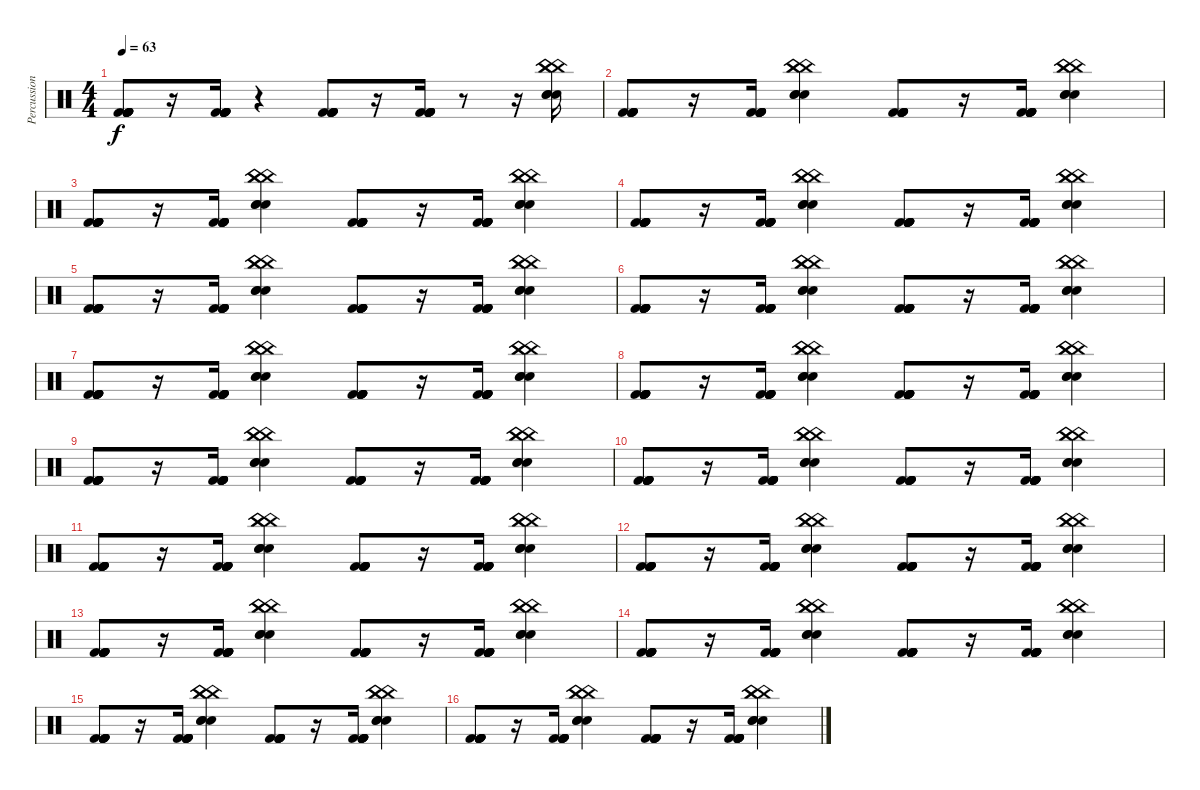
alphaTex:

\track ("Percussion" "Percussion") {instrument percussion}
\staff {score}
\articulation defaults
\ts (4 4)
\tempo 63
\clef neutral
\ks c
("Kick (hit) 2" "Kick (hit) 2" "Kick (hit) 2" "Kick (hit) 2" "Kick (hit) 2" "Kick (hit) 2").8{dy f} r.16 ("Kick (hit) 2" "Kick (hit) 2" "Kick (hit) 2" "Kick (hit) 2" "Kick (hit) 2" "Kick (hit) 2").16 r.4 ("Kick (hit) 2" "Kick (hit) 2" "Kick (hit) 2" "Kick (hit) 2" "Kick (hit) 2" "Kick (hit) 2").8 r.16 ("Kick (hit) 2" "Kick (hit) 2" "Kick (hit) 2" "Kick (hit) 2" "Kick (hit) 2" "Kick (hit) 2").16 r.8 r.16 ("China (hit)" "Snare (hit) 2" "China (hit)" "Snare (hit) 2" "China (hit)" "Snare (hit) 2").16 |
("Kick (hit) 2" "Kick (hit) 2" "Kick (hit) 2" "Kick (hit) 2" "Kick (hit) 2" "Kick (hit) 2").8 r.16 ("Kick (hit) 2" "Kick (hit) 2" "Kick (hit) 2" "Kick (hit) 2" "Kick (hit) 2" "Kick (hit) 2").16 ("China (hit)" "Snare (hit) 2" "China (hit)" "Snare (hit) 2" "China (hit)" "Snare (hit) 2").4 ("Kick (hit) 2" "Kick (hit) 2" "Kick (hit) 2" "Kick (hit) 2" "Kick (hit) 2" "Kick (hit) 2").8 r.16 ("Kick (hit) 2" "Kick (hit) 2" "Kick (hit) 2" "Kick (hit) 2" "Kick (hit) 2" "Kick (hit) 2").16 ("China (hit)" "Snare (hit) 2" "China (hit)" "Snare (hit) 2" "China (hit)" "Snare (hit) 2").4 |
("Kick (hit) 2" "Kick (hit) 2" "Kick (hit) 2" "Kick (hit) 2" "Kick (hit) 2" "Kick (hit) 2").8 r.16 ("Kick (hit) 2" "Kick (hit) 2" "Kick (hit) 2" "Kick (hit) 2" "Kick (hit) 2" "Kick (hit) 2").16 ("China (hit)" "Snare (hit) 2" "China (hit)" "Snare (hit) 2" "China (hit)" "Snare (hit) 2").4 ("Kick (hit) 2" "Kick (hit) 2" "Kick (hit) 2" "Kick (hit) 2" "Kick (hit) 2" "Kick (hit) 2").8 r.16 ("Kick (hit) 2" "Kick (hit) 2" "Kick (hit) 2" "Kick (hit) 2" "Kick (hit) 2" "Kick (hit) 2").16 ("China (hit)" "Snare (hit) 2" "China (hit)" "Snare (hit) 2" "China (hit)" "Snare (hit) 2").4 |
("Kick (hit) 2" "Kick (hit) 2" "Kick (hit) 2" "Kick (hit) 2" "Kick (hit) 2" "Kick (hit) 2").8 r.16 ("Kick (hit) 2" "Kick (hit) 2" "Kick (hit) 2" "Kick (hit) 2" "Kick (hit) 2" "Kick (hit) 2").16 ("China (hit)" "Snare (hit) 2" "China (hit)" "Snare (hit) 2" "China (hit)" "Snare (hit) 2").4 ("Kick (hit) 2" "Kick (hit) 2" "Kick (hit) 2" "Kick (hit) 2" "Kick (hit) 2" "Kick (hit) 2").8 r.16 ("Kick (hit) 2" "Kick (hit) 2" "Kick (hit) 2" "Kick (hit) 2" "Kick (hit) 2" "Kick (hit) 2").16 ("China (hit)" "Snare (hit) 2" "China (hit)" "Snare (hit) 2" "China (hit)" "Snare (hit) 2").4 |
("Kick (hit) 2" "Kick (hit) 2" "Kick (hit) 2" "Kick (hit) 2" "Kick (hit) 2" "Kick (hit) 2").8 r.16 ("Kick (hit) 2" "Kick (hit) 2" "Kick (hit) 2" "Kick (hit) 2" "Kick (hit) 2" "Kick (hit) 2").16 ("China (hit)" "Snare (hit) 2" "China (hit)" "Snare (hit) 2" "China (hit)" "Snare (hit) 2").4 ("Kick (hit) 2" "Kick (hit) 2" "Kick (hit) 2" "Kick (hit) 2" "Kick (hit) 2" "Kick (hit) 2").8 r.16 ("Kick (hit) 2" "Kick (hit) 2" "Kick (hit) 2" "Kick (hit) 2" "Kick (hit) 2" "Kick (hit) 2").16 ("China (hit)" "Snare (hit) 2" "China (hit)" "Snare (hit) 2" "China (hit)" "Snare (hit) 2").4 |
("Kick (hit) 2" "Kick (hit) 2" "Kick (hit) 2" "Kick (hit) 2" "Kick (hit) 2" "Kick (hit) 2").8 r.16 ("Kick (hit) 2" "Kick (hit) 2" "Kick (hit) 2" "Kick (hit) 2" "Kick (hit) 2" "Kick (hit) 2").16 ("China (hit)" "Snare (hit) 2" "China (hit)" "Snare (hit) 2" "China (hit)" "Snare (hit) 2").4 ("Kick (hit) 2" "Kick (hit) 2" "Kick (hit) 2" "Kick (hit) 2" "Kick (hit) 2" "Kick (hit) 2").8 r.16 ("Kick (hit) 2" "Kick (hit) 2" "Kick (hit) 2" "Kick (hit) 2" "Kick (hit) 2" "Kick (hit) 2").16 ("China (hit)" "Snare (hit) 2" "China (hit)" "Snare (hit) 2" "China (hit)" "Snare (hit) 2").4 |
("Kick (hit) 2" "Kick (hit) 2" "Kick (hit) 2" "Kick (hit) 2" "Kick (hit) 2" "Kick (hit) 2").8 r.16 ("Kick (hit) 2" "Kick (hit) 2" "Kick (hit) 2" "Kick (hit) 2" "Kick (hit) 2" "Kick (hit) 2").16 ("China (hit)" "Snare (hit) 2" "China (hit)" "Snare (hit) 2" "China (hit)" "Snare (hit) 2").4 ("Kick (hit) 2" "Kick (hit) 2" "Kick (hit) 2" "Kick (hit) 2" "Kick (hit) 2" "Kick (hit) 2").8 r.16 ("Kick (hit) 2" "Kick (hit) 2" "Kick (hit) 2" "Kick (hit) 2" "Kick (hit) 2" "Kick (hit) 2").16 ("China (hit)" "Snare (hit) 2" "China (hit)" "Snare (hit) 2" "China (hit)" "Snare (hit) 2").4 |
("Kick (hit) 2" "Kick (hit) 2" "Kick (hit) 2" "Kick (hit) 2" "Kick (hit) 2" "Kick (hit) 2").8 r.16 ("Kick (hit) 2" "Kick (hit) 2" "Kick (hit) 2" "Kick (hit) 2" "Kick (hit) 2" "Kick (hit) 2").16 ("China (hit)" "Snare (hit) 2" "China (hit)" "Snare (hit) 2" "China (hit)" "Snare (hit) 2").4 ("Kick (hit) 2" "Kick (hit) 2" "Kick (hit) 2" "Kick (hit) 2" "Kick (hit) 2" "Kick (hit) 2").8 r.16 ("Kick (hit) 2" "Kick (hit) 2" "Kick (hit) 2" "Kick (hit) 2" "Kick (hit) 2" "Kick (hit) 2").16 ("China (hit)" "Snare (hit) 2" "China (hit)" "Snare (hit) 2" "China (hit)" "Snare (hit) 2").4 |
("Kick (hit) 2" "Kick (hit) 2" "Kick (hit) 2" "Kick (hit) 2" "Kick (hit) 2" "Kick (hit) 2").8 r.16 ("Kick (hit) 2" "Kick (hit) 2" "Kick (hit) 2" "Kick (hit) 2" "Kick (hit) 2" "Kick (hit) 2").16 ("China (hit)" "Snare (hit) 2" "China (hit)" "Snare (hit) 2" "China (hit)" "Snare (hit) 2").4 ("Kick (hit) 2" "Kick (hit) 2" "Kick (hit) 2" "Kick (hit) 2" "Kick (hit) 2" "Kick (hit) 2").8 r.16 ("Kick (hit) 2" "Kick (hit) 2" "Kick (hit) 2" "Kick (hit) 2" "Kick (hit) 2" "Kick (hit) 2").16 ("China (hit)" "Snare (hit) 2" "China (hit)" "Snare (hit) 2" "China (hit)" "Snare (hit) 2").4 |
("Kick (hit) 2" "Kick (hit) 2" "Kick (hit) 2" "Kick (hit) 2" "Kick (hit) 2" "Kick (hit) 2").8 r.16 ("Kick (hit) 2" "Kick (hit) 2" "Kick (hit) 2" "Kick (hit) 2" "Kick (hit) 2" "Kick (hit) 2").16 ("China (hit)" "Snare (hit) 2" "China (hit)" "Snare (hit) 2" "China (hit)" "Snare (hit) 2").4 ("Kick (hit) 2" "Kick (hit) 2" "Kick (hit) 2" "Kick (hit) 2" "Kick (hit) 2" "Kick (hit) 2").8 r.16 ("Kick (hit) 2" "Kick (hit) 2" "Kick (hit) 2" "Kick (hit) 2" "Kick (hit) 2" "Kick (hit) 2").16 ("China (hit)" "Snare (hit) 2" "China (hit)" "Snare (hit) 2" "China (hit)" "Snare (hit) 2").4 |
("Kick (hit) 2" "Kick (hit) 2" "Kick (hit) 2" "Kick (hit) 2" "Kick (hit) 2" "Kick (hit) 2").8 r.16 ("Kick (hit) 2" "Kick (hit) 2" "Kick (hit) 2" "Kick (hit) 2" "Kick (hit) 2" "Kick (hit) 2").16 ("China (hit)" "Snare (hit) 2" "China (hit)" "Snare (hit) 2" "China (hit)" "Snare (hit) 2").4 ("Kick (hit) 2" "Kick (hit) 2" "Kick (hit) 2" "Kick (hit) 2" "Kick (hit) 2" "Kick (hit) 2").8 r.16 ("Kick (hit) 2" "Kick (hit) 2" "Kick (hit) 2" "Kick (hit) 2" "Kick (hit) 2" "Kick (hit) 2").16 ("China (hit)" "Snare (hit) 2" "China (hit)" "Snare (hit) 2" "China (hit)" "Snare (hit) 2").4 |
("Kick (hit) 2" "Kick (hit) 2" "Kick (hit) 2" "Kick (hit) 2" "Kick (hit) 2" "Kick (hit) 2").8 r.16 ("Kick (hit) 2" "Kick (hit) 2" "Kick (hit) 2" "Kick (hit) 2" "Kick (hit) 2" "Kick (hit) 2").16 ("China (hit)" "Snare (hit) 2" "China (hit)" "Snare (hit) 2" "China (hit)" "Snare (hit) 2").4 ("Kick (hit) 2" "Kick (hit) 2" "Kick (hit) 2" "Kick (hit) 2" "Kick (hit) 2" "Kick (hit) 2").8 r.16 ("Kick (hit) 2" "Kick (hit) 2" "Kick (hit) 2" "Kick (hit) 2" "Kick (hit) 2" "Kick (hit) 2").16 ("China (hit)" "Snare (hit) 2" "China (hit)" "Snare (hit) 2" "China (hit)" "Snare (hit) 2").4 |
("Kick (hit) 2" "Kick (hit) 2" "Kick (hit) 2" "Kick (hit) 2" "Kick (hit) 2" "Kick (hit) 2").8 r.16 ("Kick (hit) 2" "Kick (hit) 2" "Kick (hit) 2" "Kick (hit) 2" "Kick (hit) 2" "Kick (hit) 2").16 ("China (hit)" "Snare (hit) 2" "China (hit)" "Snare (hit) 2" "China (hit)" "Snare (hit) 2").4 ("Kick (hit) 2" "Kick (hit) 2" "Kick (hit) 2" "Kick (hit) 2" "Kick (hit) 2" "Kick (hit) 2").8 r.16 ("Kick (hit) 2" "Kick (hit) 2" "Kick (hit) 2" "Kick (hit) 2" "Kick (hit) 2" "Kick (hit) 2").16 ("China (hit)" "Snare (hit) 2" "China (hit)" "Snare (hit) 2" "China (hit)" "Snare (hit) 2").4 |
("Kick (hit) 2" "Kick (hit) 2" "Kick (hit) 2" "Kick (hit) 2" "Kick (hit) 2" "Kick (hit) 2").8 r.16 ("Kick (hit) 2" "Kick (hit) 2" "Kick (hit) 2" "Kick (hit) 2" "Kick (hit) 2" "Kick (hit) 2").16 ("China (hit)" "Snare (hit) 2" "China (hit)" "Snare (hit) 2" "China (hit)" "Snare (hit) 2").4 ("Kick (hit) 2" "Kick (hit) 2" "Kick (hit) 2" "Kick (hit) 2" "Kick (hit) 2" "Kick (hit) 2").8 r.16 ("Kick (hit) 2" "Kick (hit) 2" "Kick (hit) 2" "Kick (hit) 2" "Kick (hit) 2" "Kick (hit) 2").16 ("China (hit)" "Snare (hit) 2" "China (hit)" "Snare (hit) 2" "China (hit)" "Snare (hit) 2").4 |
("Kick (hit) 2" "Kick (hit) 2" "Kick (hit) 2" "Kick (hit) 2" "Kick (hit) 2" "Kick (hit) 2").8 r.16 ("Kick (hit) 2" "Kick (hit) 2" "Kick (hit) 2" "Kick (hit) 2" "Kick (hit) 2" "Kick (hit) 2").16 ("China (hit)" "Snare (hit) 2" "China (hit)" "Snare (hit) 2" "China (hit)" "Snare (hit) 2").4 ("Kick (hit) 2" "Kick (hit) 2" "Kick (hit) 2" "Kick (hit) 2" "Kick (hit) 2" "Kick (hit) 2").8 r.16 ("Kick (hit) 2" "Kick (hit) 2" "Kick (hit) 2" "Kick (hit) 2" "Kick (hit) 2" "Kick (hit) 2").16 ("China (hit)" "Snare (hit) 2" "China (hit)" "Snare (hit) 2" "China (hit)" "Snare (hit) 2").4 |
("Kick (hit) 2" "Kick (hit) 2" "Kick (hit) 2" "Kick (hit) 2" "Kick (hit) 2" "Kick (hit) 2").8 r.16 ("Kick (hit) 2" "Kick (hit) 2" "Kick (hit) 2" "Kick (hit) 2" "Kick (hit) 2" "Kick (hit) 2").16 ("China (hit)" "Snare (hit) 2" "China (hit)" "Snare (hit) 2" "China (hit)" "Snare (hit) 2").4 ("Kick (hit) 2" "Kick (hit) 2" "Kick (hit) 2" "Kick (hit) 2" "Kick (hit) 2" "Kick (hit) 2").8 r.16 ("Kick (hit) 2" "Kick (hit) 2" "Kick (hit) 2" "Kick (hit) 2" "Kick (hit) 2" "Kick (hit) 2").16 ("China (hit)" "Snare (hit) 2" "China (hit)" "Snare (hit) 2" "China (hit)" "Snare (hit) 2").4
